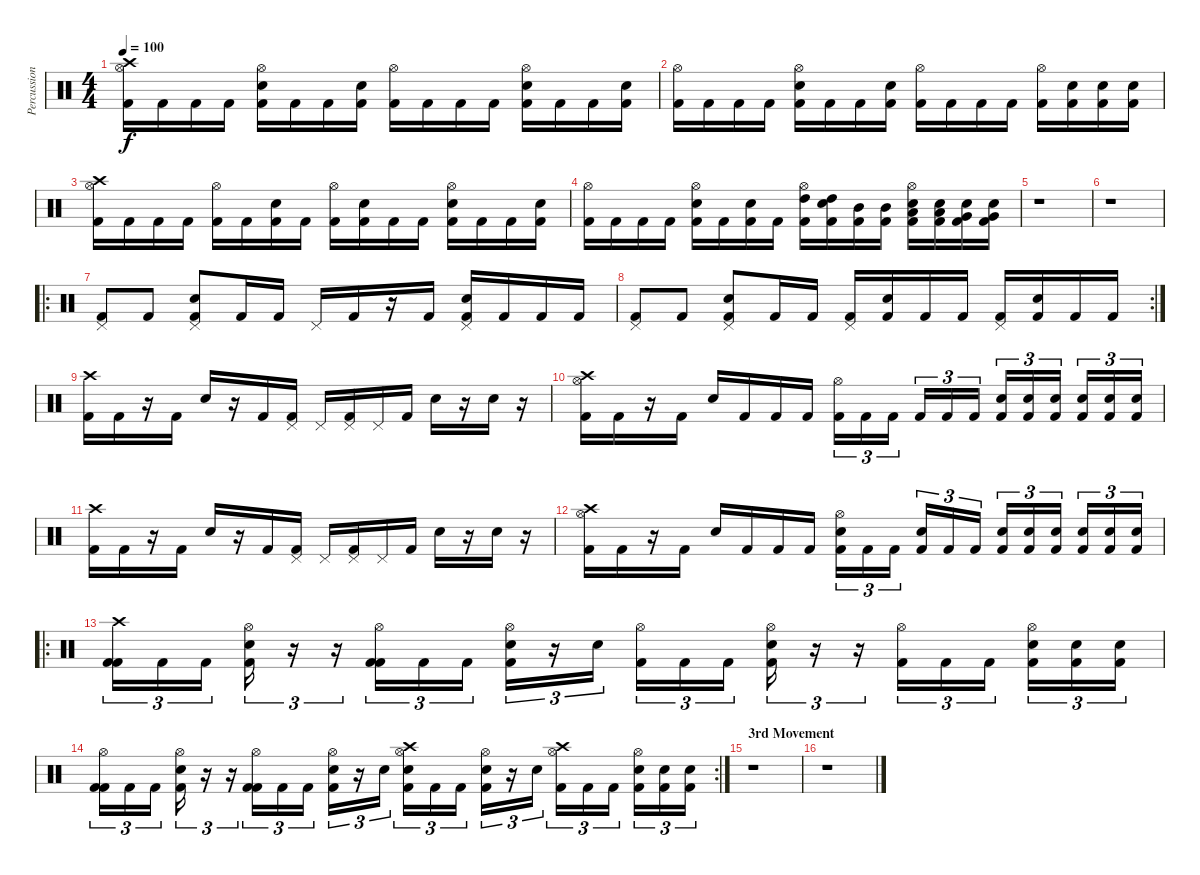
\track ("Percussion" "Percussion") {instrument percussion}
\staff {score}
\articulation defaults
\ts (4 4)
\tempo 100
\clef neutral
\ks c
("Crash high (hit)" "Hi-Hat (open)" "Kick (hit) 2").16{dy f} "Kick (hit) 2".16 "Kick (hit) 2".16 "Kick (hit) 2".16 ("Hi-Hat (open)" "Electric Snare (hit)" "Kick (hit) 2").16 "Kick (hit) 2".16 "Kick (hit) 2".16 ("Electric Snare (hit)" "Kick (hit) 2").16 ("Hi-Hat (open)" "Kick (hit) 2").16 "Kick (hit) 2".16 "Kick (hit) 2".16 "Kick (hit) 2".16 ("Hi-Hat (open)" "Electric Snare (hit)" "Kick (hit) 2").16 "Kick (hit) 2".16 "Kick (hit) 2".16 ("Electric Snare (hit)" "Kick (hit) 2").16 |
("Hi-Hat (open)" "Kick (hit) 2").16 "Kick (hit) 2".16 "Kick (hit) 2".16 "Kick (hit) 2".16 ("Hi-Hat (open)" "Electric Snare (hit)" "Kick (hit) 2").16 "Kick (hit) 2".16 "Kick (hit) 2".16 ("Electric Snare (hit)" "Kick (hit) 2").16 ("Hi-Hat (open)" "Kick (hit) 2").16 "Kick (hit) 2".16 "Kick (hit) 2".16 "Kick (hit) 2".16 ("Hi-Hat (open)" "Kick (hit) 2").16 ("Electric Snare (hit)" "Kick (hit) 2").16 ("Electric Snare (hit)" "Kick (hit) 2").16 ("Electric Snare (hit)" "Kick (hit) 2").16 |
("Crash high (hit)" "Hi-Hat (open)" "Kick (hit) 2").16 "Kick (hit) 2".16 "Kick (hit) 2".16 "Kick (hit) 2".16 ("Hi-Hat (open)" "Kick (hit) 2").16 "Kick (hit) 2".16 ("Electric Snare (hit)" "Kick (hit) 2").16 "Kick (hit) 2".16 ("Hi-Hat (open)" "Kick (hit) 2").16 ("Electric Snare (hit)" "Kick (hit) 2").16 "Kick (hit) 2".16 "Kick (hit) 2".16 ("Hi-Hat (open)" "Electric Snare (hit)" "Kick (hit) 2").16 "Kick (hit) 2".16 "Kick (hit) 2".16 ("Electric Snare (hit)" "Kick (hit) 2").16 |
("Hi-Hat (open)" "Kick (hit) 2").16 "Kick (hit) 2".16 "Kick (hit) 2".16 "Kick (hit) 2".16 ("Hi-Hat (open)" "Electric Snare (hit)" "Kick (hit) 2").16 "Kick (hit) 2".16 ("Electric Snare (hit)" "Kick (hit) 2").16 "Kick (hit) 2".16 ("Hi-Hat (open)" "High Tom (hit)" "Kick (hit) 2").16 ("Electric Snare (hit)" "High Tom (hit)" "Kick (hit) 2").16 ("Mid Tom (hit)" "Kick (hit) 2").16 ("Mid Tom (hit)" "Kick (hit) 2").16 ("Hi-Hat (open)" "Electric Snare (hit)" "Low Tom (hit)" "Kick (hit) 2").16 ("Electric Snare (hit)" "Low Tom (hit)" "Kick (hit) 2").16 ("Electric Snare (hit)" "Very Low Tom (hit)" "Kick (hit) 2").16 ("Electric Snare (hit)" "Very Low Tom (hit)" "Kick (hit) 2").16 |
r.1 |
r.1 |
\ro
("Pedal Hi-Hat (hit)" "Kick (hit) 2").8 "Kick (hit) 2".8 ("Pedal Hi-Hat (hit)" "Electric Snare (hit)" "Kick (hit) 2").8 "Kick (hit) 2".16 "Kick (hit) 2".16 "Pedal Hi-Hat (hit)".16 "Kick (hit) 2".16 r.16 "Kick (hit) 2".16 ("Pedal Hi-Hat (hit)" "Electric Snare (hit)" "Kick (hit) 2").16 "Kick (hit) 2".16 "Kick (hit) 2".16 "Kick (hit) 2".16 |
\rc 2
("Pedal Hi-Hat (hit)" "Kick (hit) 2").8 "Kick (hit) 2".8 ("Pedal Hi-Hat (hit)" "Electric Snare (hit)" "Kick (hit) 2").8 "Kick (hit) 2".16 "Kick (hit) 2".16 ("Pedal Hi-Hat (hit)" "Kick (hit) 2").16 ("Electric Snare (hit)" "Kick (hit) 2").16 "Kick (hit) 2".16 "Kick (hit) 2".16 ("Pedal Hi-Hat (hit)" "Kick (hit) 2").16 ("Electric Snare (hit)" "Kick (hit) 2").16 "Kick (hit) 2".16 "Kick (hit) 2".16 |
("Crash high (hit)" "Kick (hit) 2").16 "Kick (hit) 2".16 r.16 "Kick (hit) 2".16 "Electric Snare (hit)".16 r.16 "Kick (hit) 2".16 ("Pedal Hi-Hat (hit)" "Kick (hit) 2").16 "Pedal Hi-Hat (hit)".16 ("Pedal Hi-Hat (hit)" "Kick (hit) 2").16 "Pedal Hi-Hat (hit)".16 "Kick (hit) 2".16 "Electric Snare (hit)".16 r.16 "Electric Snare (hit)".16 r.16 |
("Crash high (hit)" "Hi-Hat (open)" "Kick (hit) 2").16 "Kick (hit) 2".16 r.16 "Kick (hit) 2".16 "Electric Snare (hit)".16 "Kick (hit) 2".16 "Kick (hit) 2".16 "Kick (hit) 2".16 ("Hi-Hat (open)" "Kick (hit) 2").16{tu (3 2)} "Kick (hit) 2".16{tu (3 2)} "Kick (hit) 2".16{tu (3 2)} "Kick (hit) 2".16{tu (3 2)} "Kick (hit) 2".16{tu (3 2)} "Kick (hit) 2".16{tu (3 2)} ("Electric Snare (hit)" "Kick (hit) 2").16{tu (3 2)} ("Electric Snare (hit)" "Kick (hit) 2").16{tu (3 2)} ("Electric Snare (hit)" "Kick (hit) 2").16{tu (3 2)} ("Electric Snare (hit)" "Kick (hit) 2").16{tu (3 2)} ("Electric Snare (hit)" "Kick (hit) 2").16{tu (3 2)} ("Electric Snare (hit)" "Kick (hit) 2").16{tu (3 2)} |
("Crash high (hit)" "Kick (hit) 2").16 "Kick (hit) 2".16 r.16 "Kick (hit) 2".16 "Electric Snare (hit)".16 r.16 "Kick (hit) 2".16 ("Pedal Hi-Hat (hit)" "Kick (hit) 2").16 "Pedal Hi-Hat (hit)".16 ("Pedal Hi-Hat (hit)" "Kick (hit) 2").16 "Pedal Hi-Hat (hit)".16 "Kick (hit) 2".16 "Electric Snare (hit)".16 r.16 "Electric Snare (hit)".16 r.16 |
("Crash high (hit)" "Hi-Hat (open)" "Kick (hit) 2").16 "Kick (hit) 2".16 r.16 "Kick (hit) 2".16 "Electric Snare (hit)".16 "Kick (hit) 2".16 "Kick (hit) 2".16 "Kick (hit) 2".16 ("Hi-Hat (open)" "Electric Snare (hit)" "Kick (hit) 2").16{tu (3 2)} "Kick (hit) 2".16{tu (3 2)} "Kick (hit) 2".16{tu (3 2)} ("Electric Snare (hit)" "Kick (hit) 2").16{tu (3 2)} "Kick (hit) 2".16{tu (3 2)} "Kick (hit) 2".16{tu (3 2)} ("Electric Snare (hit)" "Kick (hit) 2").16{tu (3 2)} ("Electric Snare (hit)" "Kick (hit) 2").16{tu (3 2)} ("Electric Snare (hit)" "Kick (hit) 2").16{tu (3 2)} ("Electric Snare (hit)" "Kick (hit) 2").16{tu (3 2)} ("Electric Snare (hit)" "Kick (hit) 2").16{tu (3 2)} ("Electric Snare (hit)" "Kick (hit) 2").16{tu (3 2)} |
\ro
("Crash high (hit)" "Kick (hit) 2" "Kick (hit) 2").16{tu (3 2)} "Kick (hit) 2".16{tu (3 2)} "Kick (hit) 2".16{tu (3 2)} ("Hi-Hat (open)" "Electric Snare (hit)" "Kick (hit) 2").16{tu (3 2)} r.16{tu (3 2)} r.16{tu (3 2)} ("Hi-Hat (open)" "Kick (hit) 2" "Kick (hit) 2").16{tu (3 2)} "Kick (hit) 2".16{tu (3 2)} "Kick (hit) 2".16{tu (3 2)} ("Hi-Hat (open)" "Electric Snare (hit)" "Kick (hit) 2").16{tu (3 2)} r.16{tu (3 2)} "Electric Snare (hit)".16{tu (3 2)} ("Hi-Hat (open)" "Kick (hit) 2").16{tu (3 2)} "Kick (hit) 2".16{tu (3 2)} "Kick (hit) 2".16{tu (3 2)} ("Hi-Hat (open)" "Electric Snare (hit)" "Kick (hit) 2").16{tu (3 2)} r.16{tu (3 2)} r.16{tu (3 2)} ("Hi-Hat (open)" "Kick (hit) 2").16{tu (3 2)} "Kick (hit) 2".16{tu (3 2)} "Kick (hit) 2".16{tu (3 2)} ("Hi-Hat (open)" "Electric Snare (hit)" "Kick (hit) 2").16{tu (3 2)} ("Electric Snare (hit)" "Kick (hit) 2").16{tu (3 2)} ("Electric Snare (hit)" "Kick (hit) 2").16{tu (3 2)} |
\rc 2
("Hi-Hat (open)" "Kick (hit) 2" "Kick (hit) 2").16{tu (3 2)} "Kick (hit) 2".16{tu (3 2)} "Kick (hit) 2".16{tu (3 2)} ("Hi-Hat (open)" "Electric Snare (hit)" "Kick (hit) 2").16{tu (3 2)} r.16{tu (3 2)} r.16{tu (3 2)} ("Hi-Hat (open)" "Kick (hit) 2" "Kick (hit) 2").16{tu (3 2)} "Kick (hit) 2".16{tu (3 2)} "Kick (hit) 2".16{tu (3 2)} ("Hi-Hat (open)" "Electric Snare (hit)" "Kick (hit) 2").16{tu (3 2)} r.16{tu (3 2)} "Electric Snare (hit)".16{tu (3 2)} ("Crash high (hit)" "Hi-Hat (open)" "Electric Snare (hit)" "Kick (hit) 2").16{tu (3 2)} "Kick (hit) 2".16{tu (3 2)} "Kick (hit) 2".16{tu (3 2)} ("Hi-Hat (open)" "Electric Snare (hit)" "Kick (hit) 2").16{tu (3 2)} r.16{tu (3 2)} "Electric Snare (hit)".16{tu (3 2)} ("Crash high (hit)" "Hi-Hat (open)" "Kick (hit) 2").16{tu (3 2)} "Kick (hit) 2".16{tu (3 2)} "Kick (hit) 2".16{tu (3 2)} ("Hi-Hat (open)" "Electric Snare (hit)" "Kick (hit) 2").16{tu (3 2)} ("Electric Snare (hit)" "Kick (hit) 2").16{tu (3 2)} ("Electric Snare (hit)" "Kick (hit) 2").16{tu (3 2)} |
\section ("" "3rd Movement")
r.1 |
r.1
